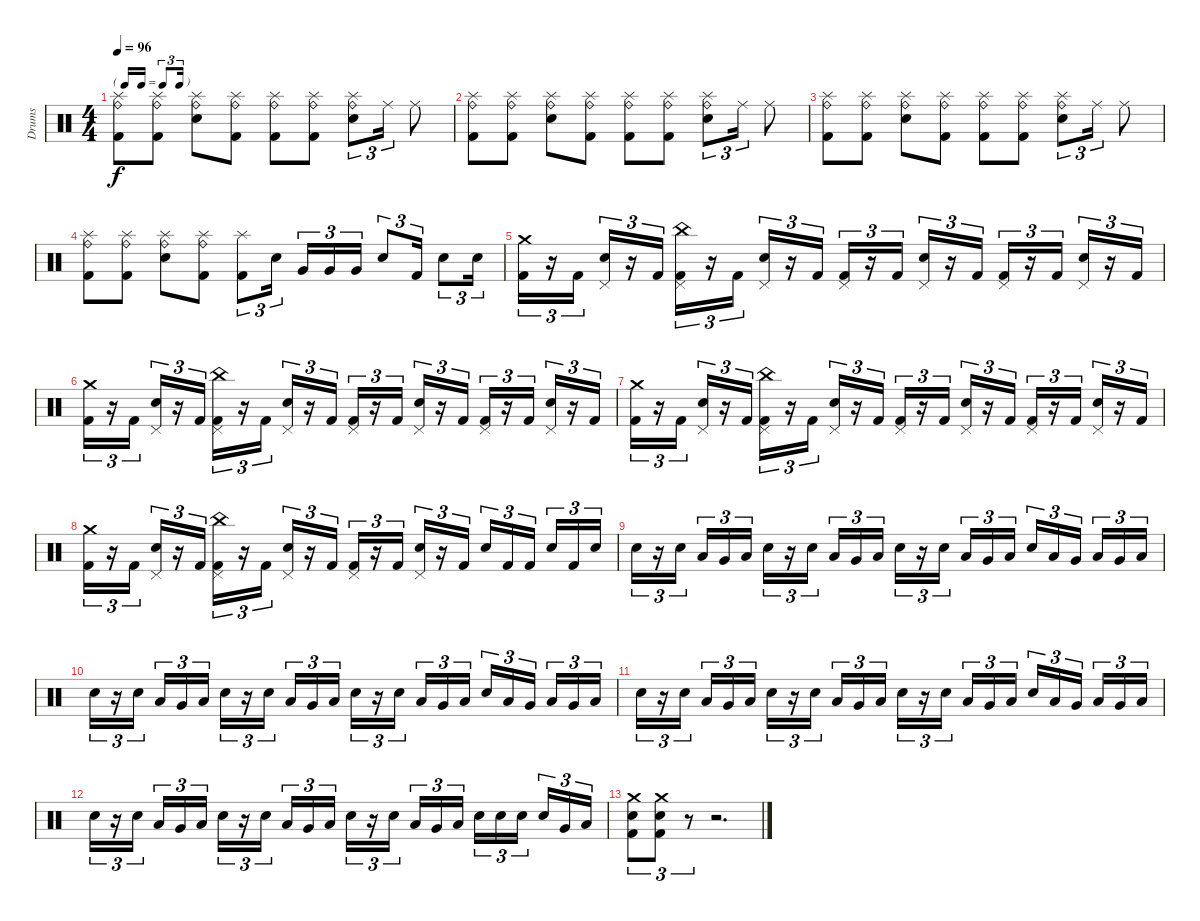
\track ("Drums" "Drums") {instrument percussion}
\staff {score}
\articulation defaults
\ts (4 4)
\tf triplet16th
\tempo 96
\clef neutral
\ks c
("Splash (hit)" "Ride (bell)" "Kick (hit) 2").8{dy f} ("Splash (hit)" "Ride (bell)" "Kick (hit) 2").8 ("Splash (hit)" "Ride (bell)" "Snare (hit) 2").8 ("Splash (hit)" "Ride (bell)" "Kick (hit) 2").8 ("Splash (hit)" "Ride (bell)" "Kick (hit) 2").8 ("Splash (hit)" "Ride (bell)" "Kick (hit) 2").8 ("Splash (hit)" "Ride (bell)" "Snare (hit) 2").8{tu (3 2)} "Ride (middle)".16{tu (3 2)} "Ride (middle)".8 |
("Splash (hit)" "Ride (bell)" "Kick (hit) 2").8 ("Splash (hit)" "Ride (bell)" "Kick (hit) 2").8 ("Splash (hit)" "Ride (bell)" "Snare (hit) 2").8 ("Splash (hit)" "Ride (bell)" "Kick (hit) 2").8 ("Splash (hit)" "Ride (bell)" "Kick (hit) 2").8 ("Splash (hit)" "Ride (bell)" "Kick (hit) 2").8 ("Splash (hit)" "Ride (bell)" "Snare (hit) 2").8{tu (3 2)} "Ride (middle)".16{tu (3 2)} "Ride (middle)".8 |
("Splash (hit)" "Ride (bell)" "Kick (hit) 2").8 ("Splash (hit)" "Ride (bell)" "Kick (hit) 2").8 ("Splash (hit)" "Ride (bell)" "Snare (hit) 2").8 ("Splash (hit)" "Ride (bell)" "Kick (hit) 2").8 ("Splash (hit)" "Ride (bell)" "Kick (hit) 2").8 ("Splash (hit)" "Ride (bell)" "Kick (hit) 2").8 ("Splash (hit)" "Ride (bell)" "Snare (hit) 2").8{tu (3 2)} "Ride (middle)".16{tu (3 2)} "Ride (middle)".8 |
("Splash (hit)" "Ride (bell)" "Kick (hit) 2").8 ("Splash (hit)" "Ride (bell)" "Kick (hit) 2").8 ("Splash (hit)" "Ride (bell)" "Snare (hit) 2").8 ("Splash (hit)" "Ride (bell)" "Kick (hit) 2").8 ("Splash (hit)" "Kick (hit) 2").8{tu (3 2)} "Snare (hit) 2".16{tu (3 2) beam splitsecondary} "Very Low Tom (hit)".16{tu (3 2)} "Very Low Tom (hit)".16{tu (3 2)} "Very Low Tom (hit)".16{tu (3 2)} "Snare (hit) 2".8{tu (3 2)} "Kick (hit) 2".16{tu (3 2)} "Snare (hit) 2".8{tu (3 2)} "Snare (hit) 2".16{tu (3 2)} |
("Crash medium (hit)" "Kick (hit) 2").16{tu (3 2)} r.16{tu (3 2)} "Kick (hit) 2".16{tu (3 2)} ("Pedal Hi-Hat (hit)" "Snare (hit) 2").16{tu (3 2)} r.16{tu (3 2)} "Kick (hit) 2".16{tu (3 2)} ("China (hit)" "Pedal Hi-Hat (hit)" "Kick (hit) 2").16{tu (3 2)} r.16{tu (3 2)} "Kick (hit) 2".16{tu (3 2)} ("Pedal Hi-Hat (hit)" "Snare (hit) 2").16{tu (3 2)} r.16{tu (3 2)} "Kick (hit) 2".16{tu (3 2)} ("Pedal Hi-Hat (hit)" "Kick (hit) 2").16{tu (3 2)} r.16{tu (3 2)} "Kick (hit) 2".16{tu (3 2)} ("Pedal Hi-Hat (hit)" "Snare (hit) 2").16{tu (3 2)} r.16{tu (3 2)} "Kick (hit) 2".16{tu (3 2)} ("Pedal Hi-Hat (hit)" "Kick (hit) 2").16{tu (3 2)} r.16{tu (3 2)} "Kick (hit) 2".16{tu (3 2)} ("Pedal Hi-Hat (hit)" "Snare (hit) 2").16{tu (3 2)} r.16{tu (3 2)} "Kick (hit) 2".16{tu (3 2)} |
("Crash medium (hit)" "Kick (hit) 2").16{tu (3 2)} r.16{tu (3 2)} "Kick (hit) 2".16{tu (3 2)} ("Pedal Hi-Hat (hit)" "Snare (hit) 2").16{tu (3 2)} r.16{tu (3 2)} "Kick (hit) 2".16{tu (3 2)} ("China (hit)" "Pedal Hi-Hat (hit)" "Kick (hit) 2").16{tu (3 2)} r.16{tu (3 2)} "Kick (hit) 2".16{tu (3 2)} ("Pedal Hi-Hat (hit)" "Snare (hit) 2").16{tu (3 2)} r.16{tu (3 2)} "Kick (hit) 2".16{tu (3 2)} ("Pedal Hi-Hat (hit)" "Kick (hit) 2").16{tu (3 2)} r.16{tu (3 2)} "Kick (hit) 2".16{tu (3 2)} ("Pedal Hi-Hat (hit)" "Snare (hit) 2").16{tu (3 2)} r.16{tu (3 2)} "Kick (hit) 2".16{tu (3 2)} ("Pedal Hi-Hat (hit)" "Kick (hit) 2").16{tu (3 2)} r.16{tu (3 2)} "Kick (hit) 2".16{tu (3 2)} ("Pedal Hi-Hat (hit)" "Snare (hit) 2").16{tu (3 2)} r.16{tu (3 2)} "Kick (hit) 2".16{tu (3 2)} |
("Crash medium (hit)" "Kick (hit) 2").16{tu (3 2)} r.16{tu (3 2)} "Kick (hit) 2".16{tu (3 2)} ("Pedal Hi-Hat (hit)" "Snare (hit) 2").16{tu (3 2)} r.16{tu (3 2)} "Kick (hit) 2".16{tu (3 2)} ("China (hit)" "Pedal Hi-Hat (hit)" "Kick (hit) 2").16{tu (3 2)} r.16{tu (3 2)} "Kick (hit) 2".16{tu (3 2)} ("Pedal Hi-Hat (hit)" "Snare (hit) 2").16{tu (3 2)} r.16{tu (3 2)} "Kick (hit) 2".16{tu (3 2)} ("Pedal Hi-Hat (hit)" "Kick (hit) 2").16{tu (3 2)} r.16{tu (3 2)} "Kick (hit) 2".16{tu (3 2)} ("Pedal Hi-Hat (hit)" "Snare (hit) 2").16{tu (3 2)} r.16{tu (3 2)} "Kick (hit) 2".16{tu (3 2)} ("Pedal Hi-Hat (hit)" "Kick (hit) 2").16{tu (3 2)} r.16{tu (3 2)} "Kick (hit) 2".16{tu (3 2)} ("Pedal Hi-Hat (hit)" "Snare (hit) 2").16{tu (3 2)} r.16{tu (3 2)} "Kick (hit) 2".16{tu (3 2)} |
("Crash medium (hit)" "Kick (hit) 2").16{tu (3 2)} r.16{tu (3 2)} "Kick (hit) 2".16{tu (3 2)} ("Pedal Hi-Hat (hit)" "Snare (hit) 2").16{tu (3 2)} r.16{tu (3 2)} "Kick (hit) 2".16{tu (3 2)} ("China (hit)" "Pedal Hi-Hat (hit)" "Kick (hit) 2").16{tu (3 2)} r.16{tu (3 2)} "Kick (hit) 2".16{tu (3 2)} ("Pedal Hi-Hat (hit)" "Snare (hit) 2").16{tu (3 2)} r.16{tu (3 2)} "Kick (hit) 2".16{tu (3 2)} ("Pedal Hi-Hat (hit)" "Kick (hit) 2").16{tu (3 2)} r.16{tu (3 2)} "Kick (hit) 2".16{tu (3 2)} ("Pedal Hi-Hat (hit)" "Snare (hit) 2").16{tu (3 2)} r.16{tu (3 2)} "Kick (hit) 2".16{tu (3 2)} "Snare (hit) 2".16{tu (3 2)} "Kick (hit) 2".16{tu (3 2)} "Kick (hit) 2".16{tu (3 2) beam splitsecondary} "Snare (hit) 2".16{tu (3 2)} "Kick (hit) 2".16{tu (3 2)} "Snare (hit) 2".16{tu (3 2)} |
"Snare (hit) 2".16{tu (3 2)} r.16{tu (3 2)} "Snare (hit) 2".16{tu (3 2) beam splitsecondary} "Low Tom (hit)".16{tu (3 2)} "Very Low Tom (hit)".16{tu (3 2)} "Low Floor Tom (hit)".16{tu (3 2)} "Snare (hit) 2".16{tu (3 2)} r.16{tu (3 2)} "Snare (hit) 2".16{tu (3 2) beam splitsecondary} "Low Tom (hit)".16{tu (3 2)} "Very Low Tom (hit)".16{tu (3 2)} "Low Floor Tom (hit)".16{tu (3 2)} "Snare (hit) 2".16{tu (3 2)} r.16{tu (3 2)} "Snare (hit) 2".16{tu (3 2) beam splitsecondary} "Low Tom (hit)".16{tu (3 2)} "Very Low Tom (hit)".16{tu (3 2)} "Low Floor Tom (hit)".16{tu (3 2)} "Snare (hit) 2".16{tu (3 2)} "Low Tom (hit)".16{tu (3 2)} "Very Low Tom (hit)".16{tu (3 2) beam splitsecondary} "Low Floor Tom (hit)".16{tu (3 2)} "Very Low Tom (hit)".16{tu (3 2)} "Low Tom (hit)".16{tu (3 2)} |
"Snare (hit) 2".16{tu (3 2)} r.16{tu (3 2)} "Snare (hit) 2".16{tu (3 2) beam splitsecondary} "Low Tom (hit)".16{tu (3 2)} "Very Low Tom (hit)".16{tu (3 2)} "Low Floor Tom (hit)".16{tu (3 2)} "Snare (hit) 2".16{tu (3 2)} r.16{tu (3 2)} "Snare (hit) 2".16{tu (3 2) beam splitsecondary} "Low Tom (hit)".16{tu (3 2)} "Very Low Tom (hit)".16{tu (3 2)} "Low Floor Tom (hit)".16{tu (3 2)} "Snare (hit) 2".16{tu (3 2)} r.16{tu (3 2)} "Snare (hit) 2".16{tu (3 2) beam splitsecondary} "Low Tom (hit)".16{tu (3 2)} "Very Low Tom (hit)".16{tu (3 2)} "Low Floor Tom (hit)".16{tu (3 2)} "Snare (hit) 2".16{tu (3 2)} "Low Tom (hit)".16{tu (3 2)} "Very Low Tom (hit)".16{tu (3 2) beam splitsecondary} "Low Floor Tom (hit)".16{tu (3 2)} "Very Low Tom (hit)".16{tu (3 2)} "Low Tom (hit)".16{tu (3 2)} |
"Snare (hit) 2".16{tu (3 2)} r.16{tu (3 2)} "Snare (hit) 2".16{tu (3 2) beam splitsecondary} "Low Tom (hit)".16{tu (3 2)} "Very Low Tom (hit)".16{tu (3 2)} "Low Floor Tom (hit)".16{tu (3 2)} "Snare (hit) 2".16{tu (3 2)} r.16{tu (3 2)} "Snare (hit) 2".16{tu (3 2) beam splitsecondary} "Low Tom (hit)".16{tu (3 2)} "Very Low Tom (hit)".16{tu (3 2)} "Low Floor Tom (hit)".16{tu (3 2)} "Snare (hit) 2".16{tu (3 2)} r.16{tu (3 2)} "Snare (hit) 2".16{tu (3 2) beam splitsecondary} "Low Tom (hit)".16{tu (3 2)} "Very Low Tom (hit)".16{tu (3 2)} "Low Floor Tom (hit)".16{tu (3 2)} "Snare (hit) 2".16{tu (3 2)} "Low Tom (hit)".16{tu (3 2)} "Very Low Tom (hit)".16{tu (3 2) beam splitsecondary} "Low Floor Tom (hit)".16{tu (3 2)} "Very Low Tom (hit)".16{tu (3 2)} "Low Tom (hit)".16{tu (3 2)} |
"Snare (hit) 2".16{tu (3 2)} r.16{tu (3 2)} "Snare (hit) 2".16{tu (3 2) beam splitsecondary} "Low Tom (hit)".16{tu (3 2)} "Very Low Tom (hit)".16{tu (3 2)} "Low Floor Tom (hit)".16{tu (3 2)} "Snare (hit) 2".16{tu (3 2)} r.16{tu (3 2)} "Snare (hit) 2".16{tu (3 2) beam splitsecondary} "Low Tom (hit)".16{tu (3 2)} "Very Low Tom (hit)".16{tu (3 2)} "Low Floor Tom (hit)".16{tu (3 2)} "Snare (hit) 2".16{tu (3 2)} r.16{tu (3 2)} "Snare (hit) 2".16{tu (3 2) beam splitsecondary} "Low Tom (hit)".16{tu (3 2)} "Very Low Tom (hit)".16{tu (3 2)} "Low Floor Tom (hit)".16{tu (3 2)} "Snare (hit) 2".16{tu (3 2)} "Snare (hit) 2".16{tu (3 2)} "Snare (hit) 2".16{tu (3 2) beam splitsecondary} "Snare (hit) 2".16{tu (3 2)} "Very Low Tom (hit)".16{tu (3 2)} "Low Tom (hit)".16{tu (3 2)} |
("Crash medium (hit)" "Snare (hit) 2" "Kick (hit) 2").8{tu (3 2)} ("Crash medium (hit)" "Snare (hit) 2" "Kick (hit) 2").8{tu (3 2)} r.8{tu (3 2)} r.2{d}
